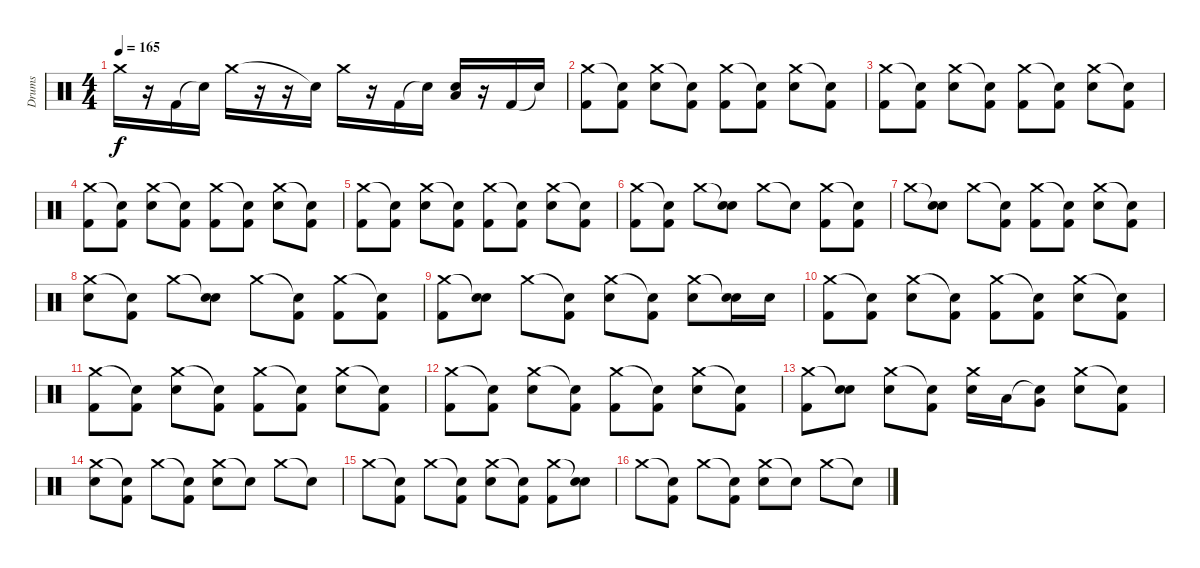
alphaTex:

\track ("Drums" "Drums") {instrument percussion}
\staff {score}
\articulation defaults
\ts (4 4)
\tempo 165
\clef neutral
\ks c "Crash medium (hit)".16{dy f}
r.16 "Kick (hit) 2".16 "Snare (hit)"{t}.16 "Crash medium (hit)".16 r.16 r.16 "Snare (hit)"{t}.16 "Crash medium (hit)".16 r.16 "Kick (hit) 2".16 "Snare (hit)"{t}.16 ("Low Tom (hit)" "Electric Snare (hit)").16 r.16 "Kick (hit) 2".16 "Snare (hit)"{t}.16 |
("Crash medium (hit)" "Kick (hit) 2").8 ("Snare (hit)"{t} "Kick (hit) 2").8 ("Crash medium (hit)" "Electric Snare (hit)").8 ("Snare (hit)"{t} "Kick (hit) 2").8 ("Crash medium (hit)" "Kick (hit) 2").8 ("Snare (hit)"{t} "Kick (hit) 2").8 ("Crash medium (hit)" "Electric Snare (hit)").8 ("Snare (hit)"{t} "Kick (hit) 2").8 |
("Crash medium (hit)" "Kick (hit) 2").8 ("Snare (hit)"{t} "Kick (hit) 2").8 ("Crash medium (hit)" "Electric Snare (hit)").8 ("Snare (hit)"{t} "Kick (hit) 2").8 ("Crash medium (hit)" "Kick (hit) 2").8 ("Snare (hit)"{t} "Kick (hit) 2").8 ("Crash medium (hit)" "Electric Snare (hit)").8 ("Snare (hit)"{t} "Kick (hit) 2").8 |
("Crash medium (hit)" "Kick (hit) 2").8 ("Snare (hit)"{t} "Kick (hit) 2").8 ("Crash medium (hit)" "Electric Snare (hit)").8 ("Snare (hit)"{t} "Kick (hit) 2").8 ("Crash medium (hit)" "Kick (hit) 2").8 ("Snare (hit)"{t} "Kick (hit) 2").8 ("Crash medium (hit)" "Electric Snare (hit)").8 ("Snare (hit)"{t} "Kick (hit) 2").8 |
("Crash medium (hit)" "Kick (hit) 2").8 ("Snare (hit)"{t} "Kick (hit) 2").8 ("Crash medium (hit)" "Electric Snare (hit)").8 ("Snare (hit)"{t} "Kick (hit) 2").8 ("Crash medium (hit)" "Kick (hit) 2").8 ("Snare (hit)"{t} "Kick (hit) 2").8 ("Crash medium (hit)" "Electric Snare (hit)").8 ("Snare (hit)"{t} "Kick (hit) 2").8 |
("Crash medium (hit)" "Kick (hit) 2").8 ("Snare (hit)"{t} "Kick (hit) 2").8 "Crash medium (hit)".8 ("Snare (hit)"{t} "Electric Snare (hit)").8 "Crash medium (hit)".8 "Snare (hit)"{t}.8 ("Crash medium (hit)" "Kick (hit) 2").8 ("Snare (hit)"{t} "Kick (hit) 2").8 |
"Crash medium (hit)".8 ("Snare (hit)"{t} "Electric Snare (hit)").8 "Crash medium (hit)".8 ("Snare (hit)"{t} "Kick (hit) 2").8 ("Crash medium (hit)" "Kick (hit) 2").8 ("Snare (hit)"{t} "Kick (hit) 2").8 ("Crash medium (hit)" "Electric Snare (hit)").8 ("Snare (hit)"{t} "Kick (hit) 2").8 |
("Crash medium (hit)" "Electric Snare (hit)").8 ("Snare (hit)"{t} "Kick (hit) 2").8 "Crash medium (hit)".8 ("Snare (hit)"{t} "Electric Snare (hit)").8 "Crash medium (hit)".8 ("Snare (hit)"{t} "Kick (hit) 2").8 ("Crash medium (hit)" "Kick (hit) 2").8 ("Snare (hit)"{t} "Kick (hit) 2").8 |
("Crash medium (hit)" "Kick (hit) 2").8 ("Snare (hit)"{t} "Electric Snare (hit)").8 "Crash medium (hit)".8 ("Snare (hit)"{t} "Kick (hit) 2").8 ("Crash medium (hit)" "Electric Snare (hit)").8 ("Snare (hit)"{t} "Kick (hit) 2").8 ("Crash medium (hit)" "Electric Snare (hit)").8 ("Snare (hit)"{t} "Electric Snare (hit)").16 "Electric Snare (hit)".16 |
("Crash medium (hit)" "Kick (hit) 2").8 ("Snare (hit)"{t} "Kick (hit) 2").8 ("Crash medium (hit)" "Electric Snare (hit)").8 ("Snare (hit)"{t} "Kick (hit) 2").8 ("Crash medium (hit)" "Kick (hit) 2").8 ("Snare (hit)"{t} "Kick (hit) 2").8 ("Crash medium (hit)" "Electric Snare (hit)").8 ("Snare (hit)"{t} "Kick (hit) 2").8 |
("Crash medium (hit)" "Kick (hit) 2").8 ("Snare (hit)"{t} "Kick (hit) 2").8 ("Crash medium (hit)" "Electric Snare (hit)").8 ("Snare (hit)"{t} "Kick (hit) 2").8 ("Crash medium (hit)" "Kick (hit) 2").8 ("Snare (hit)"{t} "Kick (hit) 2").8 ("Crash medium (hit)" "Electric Snare (hit)").8 ("Snare (hit)"{t} "Kick (hit) 2").8 |
("Crash medium (hit)" "Kick (hit) 2").8 ("Snare (hit)"{t} "Kick (hit) 2").8 ("Crash medium (hit)" "Electric Snare (hit)").8 ("Snare (hit)"{t} "Kick (hit) 2").8 ("Crash medium (hit)" "Kick (hit) 2").8 ("Snare (hit)"{t} "Kick (hit) 2").8 ("Crash medium (hit)" "Electric Snare (hit)").8 ("Snare (hit)"{t} "Kick (hit) 2").8 |
("Crash medium (hit)" "Kick (hit) 2").8 ("Snare (hit)"{t} "Electric Snare (hit)").8 ("Crash medium (hit)" "Electric Snare (hit)").8 ("Snare (hit)"{t} "Kick (hit) 2").8 ("Crash medium (hit)" "Electric Snare (hit)").16 "Low Tom (hit)".16 ("Snare (hit)"{t} "Very Low Tom (hit)").8 ("Crash medium (hit)" "Electric Snare (hit)").8 ("Snare (hit)"{t} "Kick (hit) 2").8 |
("Crash medium (hit)" "Electric Snare (hit)").8 ("Snare (hit)"{t} "Kick (hit) 2").8 "Crash medium (hit)".8 ("Snare (hit)"{t} "Kick (hit) 2").8 ("Crash medium (hit)" "Electric Snare (hit)").8 "Snare (hit)"{t}.8 "Crash medium (hit)".8 "Snare (hit)"{t}.8 |
"Crash medium (hit)".8 ("Snare (hit)"{t} "Kick (hit) 2").8 "Crash medium (hit)".8 ("Snare (hit)"{t} "Kick (hit) 2").8 ("Crash medium (hit)" "Electric Snare (hit)").8 ("Snare (hit)"{t} "Kick (hit) 2").8 ("Crash medium (hit)" "Kick (hit) 2").8 ("Snare (hit)"{t} "Electric Snare (hit)").8 |
"Crash medium (hit)".8 ("Snare (hit)"{t} "Kick (hit) 2").8 "Crash medium (hit)".8 ("Snare (hit)"{t} "Kick (hit) 2").8 ("Crash medium (hit)" "Electric Snare (hit)").8 "Snare (hit)"{t}.8 "Crash medium (hit)".8 "Snare (hit)"{t}.8
